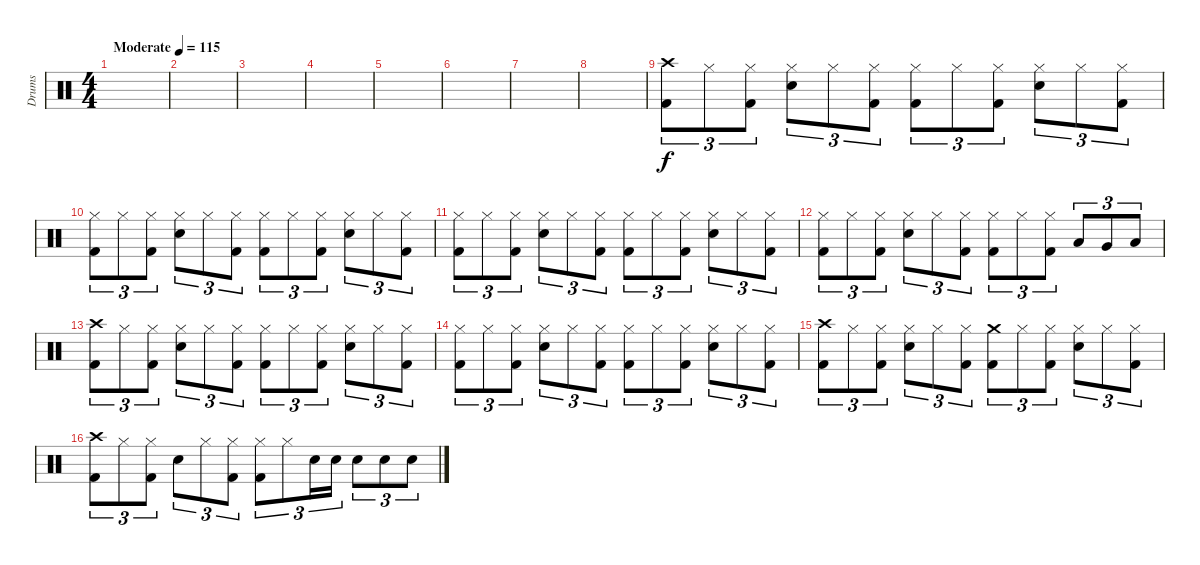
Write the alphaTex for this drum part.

\track ("Drums" "Drums") {instrument percussion}
\staff {score}
\articulation defaults
\ts (4 4)
\tempo (115 "Moderate")
\clef neutral
\ks c
|
|
|
|
|
|
|
|
("Crash high (hit)" "Kick (hit) 2").8{tu (3 2)} "Hi-Hat (closed)".8{tu (3 2)} ("Hi-Hat (closed)" "Kick (hit) 2").8{tu (3 2)} ("Hi-Hat (closed)" "Snare (hit) 2").8{tu (3 2)} "Hi-Hat (closed)".8{tu (3 2)} ("Hi-Hat (closed)" "Kick (hit) 2").8{tu (3 2)} ("Hi-Hat (closed)" "Kick (hit) 2").8{tu (3 2)} "Hi-Hat (closed)".8{tu (3 2)} ("Hi-Hat (closed)" "Kick (hit) 2").8{tu (3 2)} ("Hi-Hat (closed)" "Snare (hit) 2").8{tu (3 2)} "Hi-Hat (closed)".8{tu (3 2)} ("Hi-Hat (closed)" "Kick (hit) 2").8{tu (3 2)} |
("Hi-Hat (closed)" "Kick (hit) 2").8{tu (3 2)} "Hi-Hat (closed)".8{tu (3 2)} ("Hi-Hat (closed)" "Kick (hit) 2").8{tu (3 2)} ("Hi-Hat (closed)" "Snare (hit) 2").8{tu (3 2)} "Hi-Hat (closed)".8{tu (3 2)} ("Hi-Hat (closed)" "Kick (hit) 2").8{tu (3 2)} ("Hi-Hat (closed)" "Kick (hit) 2").8{tu (3 2)} "Hi-Hat (closed)".8{tu (3 2)} ("Hi-Hat (closed)" "Kick (hit) 2").8{tu (3 2)} ("Hi-Hat (closed)" "Snare (hit) 2").8{tu (3 2)} "Hi-Hat (closed)".8{tu (3 2)} ("Hi-Hat (closed)" "Kick (hit) 2").8{tu (3 2)} |
("Hi-Hat (closed)" "Kick (hit) 2").8{tu (3 2)} "Hi-Hat (closed)".8{tu (3 2)} ("Hi-Hat (closed)" "Kick (hit) 2").8{tu (3 2)} ("Hi-Hat (closed)" "Snare (hit) 2").8{tu (3 2)} "Hi-Hat (closed)".8{tu (3 2)} ("Hi-Hat (closed)" "Kick (hit) 2").8{tu (3 2)} ("Hi-Hat (closed)" "Kick (hit) 2").8{tu (3 2)} "Hi-Hat (closed)".8{tu (3 2)} ("Hi-Hat (closed)" "Kick (hit) 2").8{tu (3 2)} ("Hi-Hat (closed)" "Snare (hit) 2").8{tu (3 2)} "Hi-Hat (closed)".8{tu (3 2)} ("Hi-Hat (closed)" "Kick (hit) 2").8{tu (3 2)} |
("Hi-Hat (closed)" "Kick (hit) 2").8{tu (3 2)} "Hi-Hat (closed)".8{tu (3 2)} ("Hi-Hat (closed)" "Kick (hit) 2").8{tu (3 2)} ("Hi-Hat (closed)" "Snare (hit) 2").8{tu (3 2)} "Hi-Hat (closed)".8{tu (3 2)} ("Hi-Hat (closed)" "Kick (hit) 2").8{tu (3 2)} ("Hi-Hat (closed)" "Kick (hit) 2").8{tu (3 2)} "Hi-Hat (closed)".8{tu (3 2)} ("Hi-Hat (closed)" "Kick (hit) 2").8{tu (3 2)} "Low Tom (hit)".8{tu (3 2)} "Very Low Tom (hit)".8{tu (3 2)} "Low Floor Tom (hit)".8{tu (3 2)} |
("Crash high (hit)" "Kick (hit) 2").8{tu (3 2)} "Hi-Hat (closed)".8{tu (3 2)} ("Hi-Hat (closed)" "Kick (hit) 2").8{tu (3 2)} ("Hi-Hat (closed)" "Snare (hit) 2").8{tu (3 2)} "Hi-Hat (closed)".8{tu (3 2)} ("Hi-Hat (closed)" "Kick (hit) 2").8{tu (3 2)} ("Hi-Hat (closed)" "Kick (hit) 2").8{tu (3 2)} "Hi-Hat (closed)".8{tu (3 2)} ("Hi-Hat (closed)" "Kick (hit) 2").8{tu (3 2)} ("Hi-Hat (closed)" "Snare (hit) 2").8{tu (3 2)} "Hi-Hat (closed)".8{tu (3 2)} ("Hi-Hat (closed)" "Kick (hit) 2").8{tu (3 2)} |
("Hi-Hat (closed)" "Kick (hit) 2").8{tu (3 2)} "Hi-Hat (closed)".8{tu (3 2)} ("Hi-Hat (closed)" "Kick (hit) 2").8{tu (3 2)} ("Hi-Hat (closed)" "Snare (hit) 2").8{tu (3 2)} "Hi-Hat (closed)".8{tu (3 2)} ("Hi-Hat (closed)" "Kick (hit) 2").8{tu (3 2)} ("Hi-Hat (closed)" "Kick (hit) 2").8{tu (3 2)} "Hi-Hat (closed)".8{tu (3 2)} ("Hi-Hat (closed)" "Kick (hit) 2").8{tu (3 2)} ("Hi-Hat (closed)" "Snare (hit) 2").8{tu (3 2)} "Hi-Hat (closed)".8{tu (3 2)} ("Hi-Hat (closed)" "Kick (hit) 2").8{tu (3 2)} |
("Crash high (hit)" "Kick (hit) 2").8{tu (3 2)} "Hi-Hat (closed)".8{tu (3 2)} ("Hi-Hat (closed)" "Kick (hit) 2").8{tu (3 2)} ("Hi-Hat (closed)" "Snare (hit) 2").8{tu (3 2)} "Hi-Hat (closed)".8{tu (3 2)} ("Hi-Hat (closed)" "Kick (hit) 2").8{tu (3 2)} ("Crash medium (hit)" "Kick (hit) 2").8{tu (3 2)} "Hi-Hat (closed)".8{tu (3 2)} ("Hi-Hat (closed)" "Kick (hit) 2").8{tu (3 2)} ("Hi-Hat (closed)" "Snare (hit) 2").8{tu (3 2)} "Hi-Hat (closed)".8{tu (3 2)} ("Hi-Hat (closed)" "Kick (hit) 2").8{tu (3 2)} |
("Crash high (hit)" "Kick (hit) 2").8{tu (3 2)} "Hi-Hat (closed)".8{tu (3 2)} ("Hi-Hat (closed)" "Kick (hit) 2").8{tu (3 2)} "Snare (hit) 2".8{tu (3 2)} "Hi-Hat (closed)".8{tu (3 2)} ("Hi-Hat (closed)" "Kick (hit) 2").8{tu (3 2)} ("Hi-Hat (closed)" "Kick (hit) 2").8{tu (3 2)} "Hi-Hat (closed)".8{tu (3 2)} "Snare (hit) 2".16{tu (3 2)} "Snare (hit) 2".16{tu (3 2)} "Snare (hit) 2".8{tu (3 2)} "Snare (hit) 2".8{tu (3 2)} "Snare (hit) 2".8{tu (3 2)}
